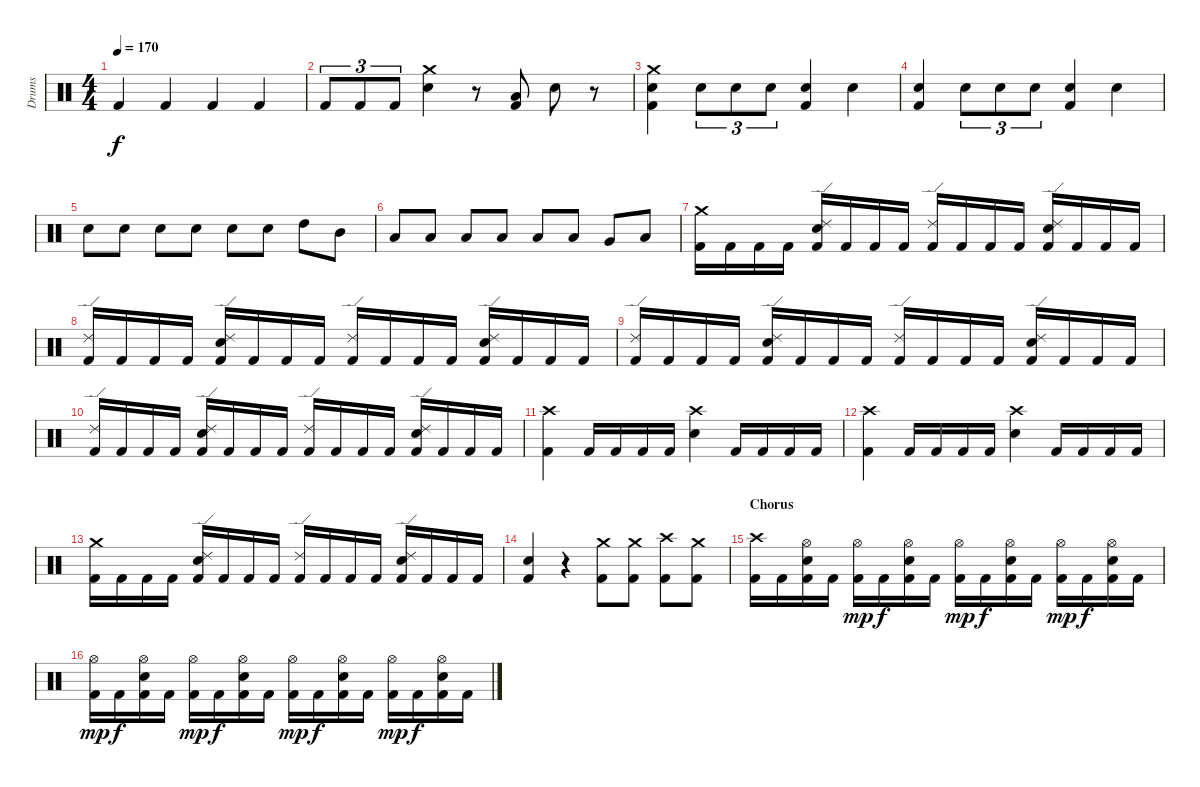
\track ("Drums" "Drums") {instrument percussion}
\staff {score}
\articulation defaults
\ts (4 4)
\tempo 170
\clef neutral
\ks c "Kick (hit) 2".4{dy f} "Kick (hit) 2".4 "Kick (hit) 2".4 "Kick (hit) 2".4
|
"Kick (hit) 2".8{tu (3 2)} "Kick (hit) 2".8{tu (3 2)} "Kick (hit) 2".8{tu (3 2)} ("Electric Snare (hit)" "Crash medium (hit)").4 r.8 ("Kick (hit) 2" "Low Tom (hit)").8 "Electric Snare (hit)".8 r.8 |
("Kick (hit) 2" "Electric Snare (hit)" "Crash medium (hit)").4 "Electric Snare (hit)".8{tu (3 2)} "Electric Snare (hit)".8{tu (3 2)} "Electric Snare (hit)".8{tu (3 2)} ("Kick (hit) 2" "Electric Snare (hit)").4 "Electric Snare (hit)".4 |
("Kick (hit) 2" "Electric Snare (hit)").4 "Electric Snare (hit)".8{tu (3 2)} "Electric Snare (hit)".8{tu (3 2)} "Electric Snare (hit)".8{tu (3 2)} ("Kick (hit) 2" "Electric Snare (hit)").4 "Electric Snare (hit)".4 |
"Electric Snare (hit)".8 "Electric Snare (hit)".8 "Electric Snare (hit)".8 "Electric Snare (hit)".8 "Electric Snare (hit)".8 "Electric Snare (hit)".8 "High Tom (hit)".8 "Mid Tom (hit)".8 |
"Low Tom (hit)".8 "Low Tom (hit)".8 "Low Tom (hit)".8 "Low Tom (hit)".8 "Low Tom (hit)".8 "Low Tom (hit)".8 "Very Low Tom (hit)".8 "Low Floor Tom (hit)".8 |
\section ("" "")
("Kick (hit) 2" "Crash medium (hit)").16 "Kick (hit) 2".16 "Kick (hit) 2".16 "Kick (hit) 2".16 ("Kick (hit) 2" "Electric Snare (hit)" "Ride (edge) 2").16 "Kick (hit) 2".16 "Kick (hit) 2".16 "Kick (hit) 2".16 ("Kick (hit) 2" "Ride (edge) 2").16 "Kick (hit) 2".16 "Kick (hit) 2".16 "Kick (hit) 2".16 ("Kick (hit) 2" "Electric Snare (hit)" "Ride (edge) 2").16 "Kick (hit) 2".16 "Kick (hit) 2".16 "Kick (hit) 2".16 |
("Kick (hit) 2" "Ride (edge) 2").16 "Kick (hit) 2".16 "Kick (hit) 2".16 "Kick (hit) 2".16 ("Kick (hit) 2" "Electric Snare (hit)" "Ride (edge) 2").16 "Kick (hit) 2".16 "Kick (hit) 2".16 "Kick (hit) 2".16 ("Kick (hit) 2" "Ride (edge) 2").16 "Kick (hit) 2".16 "Kick (hit) 2".16 "Kick (hit) 2".16 ("Kick (hit) 2" "Electric Snare (hit)" "Ride (edge) 2").16 "Kick (hit) 2".16 "Kick (hit) 2".16 "Kick (hit) 2".16 |
("Kick (hit) 2" "Ride (edge) 2").16 "Kick (hit) 2".16 "Kick (hit) 2".16 "Kick (hit) 2".16 ("Kick (hit) 2" "Electric Snare (hit)" "Ride (edge) 2").16 "Kick (hit) 2".16 "Kick (hit) 2".16 "Kick (hit) 2".16 ("Kick (hit) 2" "Ride (edge) 2").16 "Kick (hit) 2".16 "Kick (hit) 2".16 "Kick (hit) 2".16 ("Kick (hit) 2" "Electric Snare (hit)" "Ride (edge) 2").16 "Kick (hit) 2".16 "Kick (hit) 2".16 "Kick (hit) 2".16 |
("Kick (hit) 2" "Ride (edge) 2").16 "Kick (hit) 2".16 "Kick (hit) 2".16 "Kick (hit) 2".16 ("Kick (hit) 2" "Electric Snare (hit)" "Ride (edge) 2").16 "Kick (hit) 2".16 "Kick (hit) 2".16 "Kick (hit) 2".16 ("Kick (hit) 2" "Ride (edge) 2").16 "Kick (hit) 2".16 "Kick (hit) 2".16 "Kick (hit) 2".16 ("Kick (hit) 2" "Electric Snare (hit)" "Ride (edge) 2").16 "Kick (hit) 2".16 "Kick (hit) 2".16 "Kick (hit) 2".16 |
("Kick (hit) 2" "Crash high (hit)").4 "Kick (hit) 2".16 "Kick (hit) 2".16 "Kick (hit) 2".16 "Kick (hit) 2".16 ("Electric Snare (hit)" "Crash high (hit)").4 "Kick (hit) 2".16 "Kick (hit) 2".16 "Kick (hit) 2".16 "Kick (hit) 2".16 |
("Kick (hit) 2" "Crash high (hit)").4 "Kick (hit) 2".16 "Kick (hit) 2".16 "Kick (hit) 2".16 "Kick (hit) 2".16 ("Electric Snare (hit)" "Crash high (hit)").4 "Kick (hit) 2".16 "Kick (hit) 2".16 "Kick (hit) 2".16 "Kick (hit) 2".16 |
("Kick (hit) 2" "Crash medium (hit)").16 "Kick (hit) 2".16 "Kick (hit) 2".16 "Kick (hit) 2".16 ("Kick (hit) 2" "Electric Snare (hit)" "Ride (edge) 2").16 "Kick (hit) 2".16 "Kick (hit) 2".16 "Kick (hit) 2".16 ("Kick (hit) 2" "Ride (edge) 2").16 "Kick (hit) 2".16 "Kick (hit) 2".16 "Kick (hit) 2".16 ("Kick (hit) 2" "Electric Snare (hit)" "Ride (edge) 2").16 "Kick (hit) 2".16 "Kick (hit) 2".16 "Kick (hit) 2".16 |
("Kick (hit) 2" "Electric Snare (hit)").4 r.4 ("Kick (hit) 2" "Crash medium (hit)").8 ("Kick (hit) 2" "Crash medium (hit)").8 ("Kick (hit) 2" "Crash high (hit)").8 ("Kick (hit) 2" "Crash medium (hit)").8 |
\section ("" "Chorus")
("Kick (hit) 2" "Crash high (hit)").16 "Kick (hit) 2".16 ("Kick (hit) 2" "Electric Snare (hit)" "Hi-Hat (open)").16 "Kick (hit) 2".16 ("Kick (hit) 2" "Hi-Hat (open)").16{dy mp} "Kick (hit) 2".16{dy f} ("Kick (hit) 2" "Electric Snare (hit)" "Hi-Hat (open)").16 "Kick (hit) 2".16 ("Kick (hit) 2" "Hi-Hat (open)").16{dy mp} "Kick (hit) 2".16{dy f} ("Kick (hit) 2" "Electric Snare (hit)" "Hi-Hat (open)").16 "Kick (hit) 2".16 ("Kick (hit) 2" "Hi-Hat (open)").16{dy mp} "Kick (hit) 2".16{dy f} ("Kick (hit) 2" "Electric Snare (hit)" "Hi-Hat (open)").16 "Kick (hit) 2".16 |
("Kick (hit) 2" "Hi-Hat (open)").16{dy mp} "Kick (hit) 2".16{dy f} ("Kick (hit) 2" "Electric Snare (hit)" "Hi-Hat (open)").16 "Kick (hit) 2".16 ("Kick (hit) 2" "Hi-Hat (open)").16{dy mp} "Kick (hit) 2".16{dy f} ("Kick (hit) 2" "Electric Snare (hit)" "Hi-Hat (open)").16 "Kick (hit) 2".16 ("Kick (hit) 2" "Hi-Hat (open)").16{dy mp} "Kick (hit) 2".16{dy f} ("Kick (hit) 2" "Electric Snare (hit)" "Hi-Hat (open)").16 "Kick (hit) 2".16 ("Kick (hit) 2" "Hi-Hat (open)").16{dy mp} "Kick (hit) 2".16{dy f} ("Kick (hit) 2" "Electric Snare (hit)" "Hi-Hat (open)").16 "Kick (hit) 2".16
